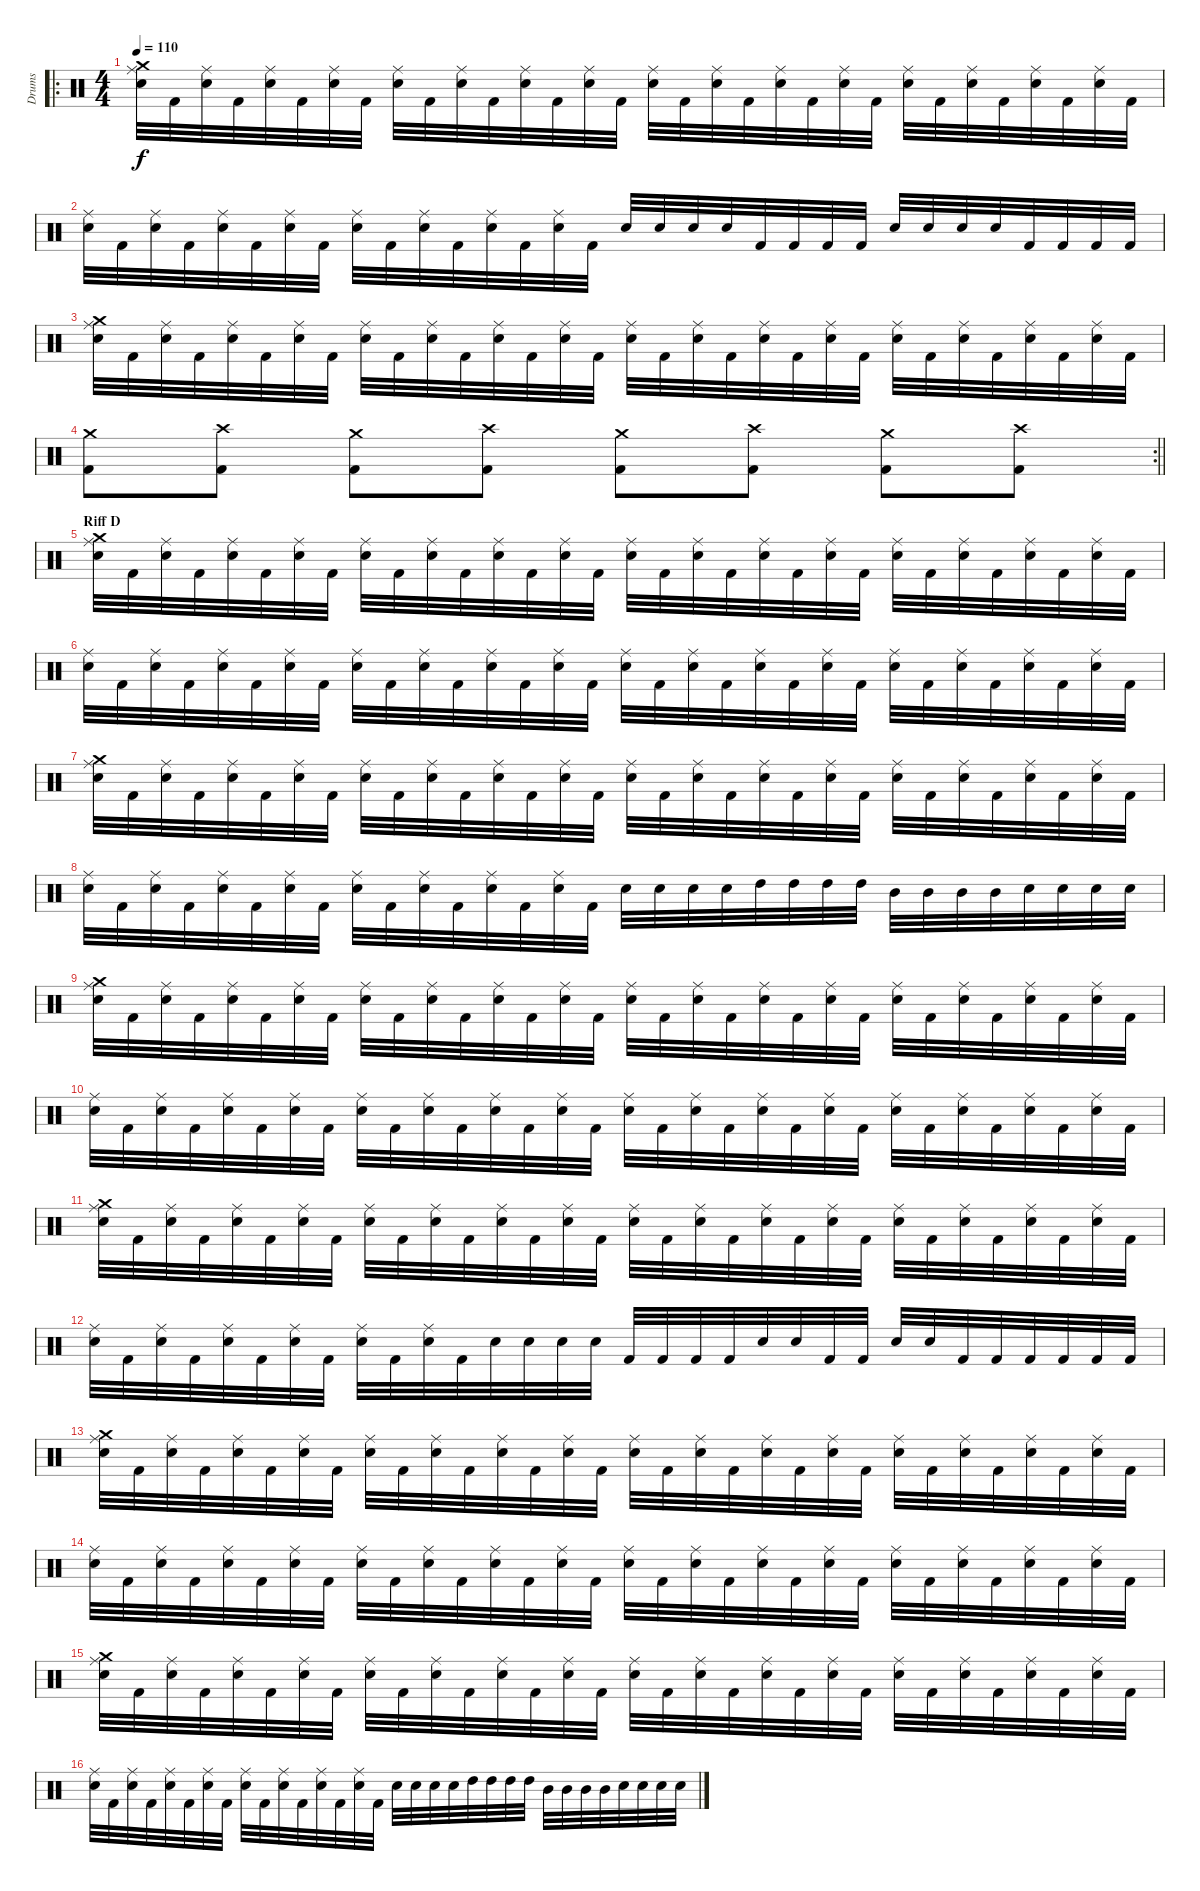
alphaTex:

\track ("Drums" "Drums") {instrument percussion}
\staff {score}
\articulation defaults
\ro
\ts (4 4)
\tempo 110
\clef neutral
\ks c
("Crash medium (hit)" "Ride (middle)" "Electric Snare (hit)").32{dy f} "Kick (hit) 2".32 ("Ride (middle)" "Electric Snare (hit)").32 "Kick (hit) 2".32 ("Ride (middle)" "Electric Snare (hit)").32 "Kick (hit) 2".32 ("Ride (middle)" "Electric Snare (hit)").32 "Kick (hit) 2".32 ("Ride (middle)" "Electric Snare (hit)").32 "Kick (hit) 2".32 ("Ride (middle)" "Electric Snare (hit)").32 "Kick (hit) 2".32 ("Ride (middle)" "Electric Snare (hit)").32 "Kick (hit) 2".32 ("Ride (middle)" "Electric Snare (hit)").32 "Kick (hit) 2".32 ("Ride (middle)" "Electric Snare (hit)").32 "Kick (hit) 2".32 ("Ride (middle)" "Electric Snare (hit)").32 "Kick (hit) 2".32 ("Ride (middle)" "Electric Snare (hit)").32 "Kick (hit) 2".32 ("Ride (middle)" "Electric Snare (hit)").32 "Kick (hit) 2".32 ("Ride (middle)" "Electric Snare (hit)").32 "Kick (hit) 2".32 ("Ride (middle)" "Electric Snare (hit)").32 "Kick (hit) 2".32 ("Ride (middle)" "Electric Snare (hit)").32 "Kick (hit) 2".32 ("Ride (middle)" "Electric Snare (hit)").32 "Kick (hit) 2".32 |
("Ride (middle)" "Electric Snare (hit)").32 "Kick (hit) 2".32 ("Ride (middle)" "Electric Snare (hit)").32 "Kick (hit) 2".32 ("Ride (middle)" "Electric Snare (hit)").32 "Kick (hit) 2".32 ("Ride (middle)" "Electric Snare (hit)").32 "Kick (hit) 2".32 ("Ride (middle)" "Electric Snare (hit)").32 "Kick (hit) 2".32 ("Ride (middle)" "Electric Snare (hit)").32 "Kick (hit) 2".32 ("Ride (middle)" "Electric Snare (hit)").32 "Kick (hit) 2".32 ("Ride (middle)" "Electric Snare (hit)").32 "Kick (hit) 2".32 "Electric Snare (hit)".32 "Electric Snare (hit)".32 "Electric Snare (hit)".32 "Electric Snare (hit)".32 "Kick (hit) 2".32 "Kick (hit) 2".32 "Kick (hit) 2".32 "Kick (hit) 2".32 "Electric Snare (hit)".32 "Electric Snare (hit)".32 "Electric Snare (hit)".32 "Electric Snare (hit)".32 "Kick (hit) 2".32 "Kick (hit) 2".32 "Kick (hit) 2".32 "Kick (hit) 2".32 |
("Crash medium (hit)" "Ride (middle)" "Electric Snare (hit)").32 "Kick (hit) 2".32 ("Ride (middle)" "Electric Snare (hit)").32 "Kick (hit) 2".32 ("Ride (middle)" "Electric Snare (hit)").32 "Kick (hit) 2".32 ("Ride (middle)" "Electric Snare (hit)").32 "Kick (hit) 2".32 ("Ride (middle)" "Electric Snare (hit)").32 "Kick (hit) 2".32 ("Ride (middle)" "Electric Snare (hit)").32 "Kick (hit) 2".32 ("Ride (middle)" "Electric Snare (hit)").32 "Kick (hit) 2".32 ("Ride (middle)" "Electric Snare (hit)").32 "Kick (hit) 2".32 ("Ride (middle)" "Electric Snare (hit)").32 "Kick (hit) 2".32 ("Ride (middle)" "Electric Snare (hit)").32 "Kick (hit) 2".32 ("Ride (middle)" "Electric Snare (hit)").32 "Kick (hit) 2".32 ("Ride (middle)" "Electric Snare (hit)").32 "Kick (hit) 2".32 ("Ride (middle)" "Electric Snare (hit)").32 "Kick (hit) 2".32 ("Ride (middle)" "Electric Snare (hit)").32 "Kick (hit) 2".32 ("Ride (middle)" "Electric Snare (hit)").32 "Kick (hit) 2".32 ("Ride (middle)" "Electric Snare (hit)").32 "Kick (hit) 2".32 |
\rc 2
\barLineRight lightlight
("Crash medium (hit)" "Kick (hit) 2").8 ("Crash high (hit)" "Kick (hit) 2").8 ("Crash medium (hit)" "Kick (hit) 2").8 ("Crash high (hit)" "Kick (hit) 2").8 ("Crash medium (hit)" "Kick (hit) 2").8 ("Crash high (hit)" "Kick (hit) 2").8 ("Crash medium (hit)" "Kick (hit) 2").8 ("Crash high (hit)" "Kick (hit) 2").8 |
\section ("" "Riff D")
("Crash medium (hit)" "Ride (middle)" "Electric Snare (hit)").32 "Kick (hit) 2".32 ("Ride (middle)" "Electric Snare (hit)").32 "Kick (hit) 2".32 ("Ride (middle)" "Electric Snare (hit)").32 "Kick (hit) 2".32 ("Ride (middle)" "Electric Snare (hit)").32 "Kick (hit) 2".32 ("Ride (middle)" "Electric Snare (hit)").32 "Kick (hit) 2".32 ("Ride (middle)" "Electric Snare (hit)").32 "Kick (hit) 2".32 ("Ride (middle)" "Electric Snare (hit)").32 "Kick (hit) 2".32 ("Ride (middle)" "Electric Snare (hit)").32 "Kick (hit) 2".32 ("Ride (middle)" "Electric Snare (hit)").32 "Kick (hit) 2".32 ("Ride (middle)" "Electric Snare (hit)").32 "Kick (hit) 2".32 ("Ride (middle)" "Electric Snare (hit)").32 "Kick (hit) 2".32 ("Ride (middle)" "Electric Snare (hit)").32 "Kick (hit) 2".32 ("Ride (middle)" "Electric Snare (hit)").32 "Kick (hit) 2".32 ("Ride (middle)" "Electric Snare (hit)").32 "Kick (hit) 2".32 ("Ride (middle)" "Electric Snare (hit)").32 "Kick (hit) 2".32 ("Ride (middle)" "Electric Snare (hit)").32 "Kick (hit) 2".32 |
("Ride (middle)" "Electric Snare (hit)").32 "Kick (hit) 2".32 ("Ride (middle)" "Electric Snare (hit)").32 "Kick (hit) 2".32 ("Ride (middle)" "Electric Snare (hit)").32 "Kick (hit) 2".32 ("Ride (middle)" "Electric Snare (hit)").32 "Kick (hit) 2".32 ("Ride (middle)" "Electric Snare (hit)").32 "Kick (hit) 2".32 ("Ride (middle)" "Electric Snare (hit)").32 "Kick (hit) 2".32 ("Ride (middle)" "Electric Snare (hit)").32 "Kick (hit) 2".32 ("Ride (middle)" "Electric Snare (hit)").32 "Kick (hit) 2".32 ("Ride (middle)" "Electric Snare (hit)").32 "Kick (hit) 2".32 ("Ride (middle)" "Electric Snare (hit)").32 "Kick (hit) 2".32 ("Ride (middle)" "Electric Snare (hit)").32 "Kick (hit) 2".32 ("Ride (middle)" "Electric Snare (hit)").32 "Kick (hit) 2".32 ("Ride (middle)" "Electric Snare (hit)").32 "Kick (hit) 2".32 ("Ride (middle)" "Electric Snare (hit)").32 "Kick (hit) 2".32 ("Ride (middle)" "Electric Snare (hit)").32 "Kick (hit) 2".32 ("Ride (middle)" "Electric Snare (hit)").32 "Kick (hit) 2".32 |
("Crash medium (hit)" "Ride (middle)" "Electric Snare (hit)").32 "Kick (hit) 2".32 ("Ride (middle)" "Electric Snare (hit)").32 "Kick (hit) 2".32 ("Ride (middle)" "Electric Snare (hit)").32 "Kick (hit) 2".32 ("Ride (middle)" "Electric Snare (hit)").32 "Kick (hit) 2".32 ("Ride (middle)" "Electric Snare (hit)").32 "Kick (hit) 2".32 ("Ride (middle)" "Electric Snare (hit)").32 "Kick (hit) 2".32 ("Ride (middle)" "Electric Snare (hit)").32 "Kick (hit) 2".32 ("Ride (middle)" "Electric Snare (hit)").32 "Kick (hit) 2".32 ("Ride (middle)" "Electric Snare (hit)").32 "Kick (hit) 2".32 ("Ride (middle)" "Electric Snare (hit)").32 "Kick (hit) 2".32 ("Ride (middle)" "Electric Snare (hit)").32 "Kick (hit) 2".32 ("Ride (middle)" "Electric Snare (hit)").32 "Kick (hit) 2".32 ("Ride (middle)" "Electric Snare (hit)").32 "Kick (hit) 2".32 ("Ride (middle)" "Electric Snare (hit)").32 "Kick (hit) 2".32 ("Ride (middle)" "Electric Snare (hit)").32 "Kick (hit) 2".32 ("Ride (middle)" "Electric Snare (hit)").32 "Kick (hit) 2".32 |
("Ride (middle)" "Electric Snare (hit)").32 "Kick (hit) 2".32 ("Ride (middle)" "Electric Snare (hit)").32 "Kick (hit) 2".32 ("Ride (middle)" "Electric Snare (hit)").32 "Kick (hit) 2".32 ("Ride (middle)" "Electric Snare (hit)").32 "Kick (hit) 2".32 ("Ride (middle)" "Electric Snare (hit)").32 "Kick (hit) 2".32 ("Ride (middle)" "Electric Snare (hit)").32 "Kick (hit) 2".32 ("Ride (middle)" "Electric Snare (hit)").32 "Kick (hit) 2".32 ("Ride (middle)" "Electric Snare (hit)").32 "Kick (hit) 2".32 "Electric Snare (hit)".32 "Electric Snare (hit)".32 "Electric Snare (hit)".32 "Electric Snare (hit)".32 "High Tom (hit)".32 "High Tom (hit)".32 "High Tom (hit)".32 "High Tom (hit)".32 "Mid Tom (hit)".32 "Mid Tom (hit)".32 "Mid Tom (hit)".32 "Mid Tom (hit)".32 "Electric Snare (hit)".32 "Electric Snare (hit)".32 "Electric Snare (hit)".32 "Electric Snare (hit)".32 |
("Crash medium (hit)" "Ride (middle)" "Electric Snare (hit)").32 "Kick (hit) 2".32 ("Ride (middle)" "Electric Snare (hit)").32 "Kick (hit) 2".32 ("Ride (middle)" "Electric Snare (hit)").32 "Kick (hit) 2".32 ("Ride (middle)" "Electric Snare (hit)").32 "Kick (hit) 2".32 ("Ride (middle)" "Electric Snare (hit)").32 "Kick (hit) 2".32 ("Ride (middle)" "Electric Snare (hit)").32 "Kick (hit) 2".32 ("Ride (middle)" "Electric Snare (hit)").32 "Kick (hit) 2".32 ("Ride (middle)" "Electric Snare (hit)").32 "Kick (hit) 2".32 ("Ride (middle)" "Electric Snare (hit)").32 "Kick (hit) 2".32 ("Ride (middle)" "Electric Snare (hit)").32 "Kick (hit) 2".32 ("Ride (middle)" "Electric Snare (hit)").32 "Kick (hit) 2".32 ("Ride (middle)" "Electric Snare (hit)").32 "Kick (hit) 2".32 ("Ride (middle)" "Electric Snare (hit)").32 "Kick (hit) 2".32 ("Ride (middle)" "Electric Snare (hit)").32 "Kick (hit) 2".32 ("Ride (middle)" "Electric Snare (hit)").32 "Kick (hit) 2".32 ("Ride (middle)" "Electric Snare (hit)").32 "Kick (hit) 2".32 |
("Ride (middle)" "Electric Snare (hit)").32 "Kick (hit) 2".32 ("Ride (middle)" "Electric Snare (hit)").32 "Kick (hit) 2".32 ("Ride (middle)" "Electric Snare (hit)").32 "Kick (hit) 2".32 ("Ride (middle)" "Electric Snare (hit)").32 "Kick (hit) 2".32 ("Ride (middle)" "Electric Snare (hit)").32 "Kick (hit) 2".32 ("Ride (middle)" "Electric Snare (hit)").32 "Kick (hit) 2".32 ("Ride (middle)" "Electric Snare (hit)").32 "Kick (hit) 2".32 ("Ride (middle)" "Electric Snare (hit)").32 "Kick (hit) 2".32 ("Ride (middle)" "Electric Snare (hit)").32 "Kick (hit) 2".32 ("Ride (middle)" "Electric Snare (hit)").32 "Kick (hit) 2".32 ("Ride (middle)" "Electric Snare (hit)").32 "Kick (hit) 2".32 ("Ride (middle)" "Electric Snare (hit)").32 "Kick (hit) 2".32 ("Ride (middle)" "Electric Snare (hit)").32 "Kick (hit) 2".32 ("Ride (middle)" "Electric Snare (hit)").32 "Kick (hit) 2".32 ("Ride (middle)" "Electric Snare (hit)").32 "Kick (hit) 2".32 ("Ride (middle)" "Electric Snare (hit)").32 "Kick (hit) 2".32 |
("Crash medium (hit)" "Ride (middle)" "Electric Snare (hit)").32 "Kick (hit) 2".32 ("Ride (middle)" "Electric Snare (hit)").32 "Kick (hit) 2".32 ("Ride (middle)" "Electric Snare (hit)").32 "Kick (hit) 2".32 ("Ride (middle)" "Electric Snare (hit)").32 "Kick (hit) 2".32 ("Ride (middle)" "Electric Snare (hit)").32 "Kick (hit) 2".32 ("Ride (middle)" "Electric Snare (hit)").32 "Kick (hit) 2".32 ("Ride (middle)" "Electric Snare (hit)").32 "Kick (hit) 2".32 ("Ride (middle)" "Electric Snare (hit)").32 "Kick (hit) 2".32 ("Ride (middle)" "Electric Snare (hit)").32 "Kick (hit) 2".32 ("Ride (middle)" "Electric Snare (hit)").32 "Kick (hit) 2".32 ("Ride (middle)" "Electric Snare (hit)").32 "Kick (hit) 2".32 ("Ride (middle)" "Electric Snare (hit)").32 "Kick (hit) 2".32 ("Ride (middle)" "Electric Snare (hit)").32 "Kick (hit) 2".32 ("Ride (middle)" "Electric Snare (hit)").32 "Kick (hit) 2".32 ("Ride (middle)" "Electric Snare (hit)").32 "Kick (hit) 2".32 ("Ride (middle)" "Electric Snare (hit)").32 "Kick (hit) 2".32 |
("Ride (middle)" "Electric Snare (hit)").32 "Kick (hit) 2".32 ("Ride (middle)" "Electric Snare (hit)").32 "Kick (hit) 2".32 ("Ride (middle)" "Electric Snare (hit)").32 "Kick (hit) 2".32 ("Ride (middle)" "Electric Snare (hit)").32 "Kick (hit) 2".32 ("Ride (middle)" "Electric Snare (hit)").32 "Kick (hit) 2".32 ("Ride (middle)" "Electric Snare (hit)").32 "Kick (hit) 2".32 "Electric Snare (hit)".32 "Electric Snare (hit)".32 "Electric Snare (hit)".32 "Electric Snare (hit)".32 "Kick (hit) 2".32 "Kick (hit) 2".32 "Kick (hit) 2".32 "Kick (hit) 2".32 "Electric Snare (hit)".32 "Electric Snare (hit)".32 "Kick (hit) 2".32 "Kick (hit) 2".32 "Electric Snare (hit)".32 "Electric Snare (hit)".32 "Kick (hit) 2".32 "Kick (hit) 2".32 "Kick (hit) 2".32 "Kick (hit) 2".32 "Kick (hit) 2".32 "Kick (hit) 2".32 |
("Crash medium (hit)" "Ride (middle)" "Electric Snare (hit)").32 "Kick (hit) 2".32 ("Ride (middle)" "Electric Snare (hit)").32 "Kick (hit) 2".32 ("Ride (middle)" "Electric Snare (hit)").32 "Kick (hit) 2".32 ("Ride (middle)" "Electric Snare (hit)").32 "Kick (hit) 2".32 ("Ride (middle)" "Electric Snare (hit)").32 "Kick (hit) 2".32 ("Ride (middle)" "Electric Snare (hit)").32 "Kick (hit) 2".32 ("Ride (middle)" "Electric Snare (hit)").32 "Kick (hit) 2".32 ("Ride (middle)" "Electric Snare (hit)").32 "Kick (hit) 2".32 ("Ride (middle)" "Electric Snare (hit)").32 "Kick (hit) 2".32 ("Ride (middle)" "Electric Snare (hit)").32 "Kick (hit) 2".32 ("Ride (middle)" "Electric Snare (hit)").32 "Kick (hit) 2".32 ("Ride (middle)" "Electric Snare (hit)").32 "Kick (hit) 2".32 ("Ride (middle)" "Electric Snare (hit)").32 "Kick (hit) 2".32 ("Ride (middle)" "Electric Snare (hit)").32 "Kick (hit) 2".32 ("Ride (middle)" "Electric Snare (hit)").32 "Kick (hit) 2".32 ("Ride (middle)" "Electric Snare (hit)").32 "Kick (hit) 2".32 |
("Ride (middle)" "Electric Snare (hit)").32 "Kick (hit) 2".32 ("Ride (middle)" "Electric Snare (hit)").32 "Kick (hit) 2".32 ("Ride (middle)" "Electric Snare (hit)").32 "Kick (hit) 2".32 ("Ride (middle)" "Electric Snare (hit)").32 "Kick (hit) 2".32 ("Ride (middle)" "Electric Snare (hit)").32 "Kick (hit) 2".32 ("Ride (middle)" "Electric Snare (hit)").32 "Kick (hit) 2".32 ("Ride (middle)" "Electric Snare (hit)").32 "Kick (hit) 2".32 ("Ride (middle)" "Electric Snare (hit)").32 "Kick (hit) 2".32 ("Ride (middle)" "Electric Snare (hit)").32 "Kick (hit) 2".32 ("Ride (middle)" "Electric Snare (hit)").32 "Kick (hit) 2".32 ("Ride (middle)" "Electric Snare (hit)").32 "Kick (hit) 2".32 ("Ride (middle)" "Electric Snare (hit)").32 "Kick (hit) 2".32 ("Ride (middle)" "Electric Snare (hit)").32 "Kick (hit) 2".32 ("Ride (middle)" "Electric Snare (hit)").32 "Kick (hit) 2".32 ("Ride (middle)" "Electric Snare (hit)").32 "Kick (hit) 2".32 ("Ride (middle)" "Electric Snare (hit)").32 "Kick (hit) 2".32 |
("Crash medium (hit)" "Ride (middle)" "Electric Snare (hit)").32 "Kick (hit) 2".32 ("Ride (middle)" "Electric Snare (hit)").32 "Kick (hit) 2".32 ("Ride (middle)" "Electric Snare (hit)").32 "Kick (hit) 2".32 ("Ride (middle)" "Electric Snare (hit)").32 "Kick (hit) 2".32 ("Ride (middle)" "Electric Snare (hit)").32 "Kick (hit) 2".32 ("Ride (middle)" "Electric Snare (hit)").32 "Kick (hit) 2".32 ("Ride (middle)" "Electric Snare (hit)").32 "Kick (hit) 2".32 ("Ride (middle)" "Electric Snare (hit)").32 "Kick (hit) 2".32 ("Ride (middle)" "Electric Snare (hit)").32 "Kick (hit) 2".32 ("Ride (middle)" "Electric Snare (hit)").32 "Kick (hit) 2".32 ("Ride (middle)" "Electric Snare (hit)").32 "Kick (hit) 2".32 ("Ride (middle)" "Electric Snare (hit)").32 "Kick (hit) 2".32 ("Ride (middle)" "Electric Snare (hit)").32 "Kick (hit) 2".32 ("Ride (middle)" "Electric Snare (hit)").32 "Kick (hit) 2".32 ("Ride (middle)" "Electric Snare (hit)").32 "Kick (hit) 2".32 ("Ride (middle)" "Electric Snare (hit)").32 "Kick (hit) 2".32 |
("Ride (middle)" "Electric Snare (hit)").32 "Kick (hit) 2".32 ("Ride (middle)" "Electric Snare (hit)").32 "Kick (hit) 2".32 ("Ride (middle)" "Electric Snare (hit)").32 "Kick (hit) 2".32 ("Ride (middle)" "Electric Snare (hit)").32 "Kick (hit) 2".32 ("Ride (middle)" "Electric Snare (hit)").32 "Kick (hit) 2".32 ("Ride (middle)" "Electric Snare (hit)").32 "Kick (hit) 2".32 ("Ride (middle)" "Electric Snare (hit)").32 "Kick (hit) 2".32 ("Ride (middle)" "Electric Snare (hit)").32 "Kick (hit) 2".32 "Electric Snare (hit)".32 "Electric Snare (hit)".32 "Electric Snare (hit)".32 "Electric Snare (hit)".32 "High Tom (hit)".32 "High Tom (hit)".32 "High Tom (hit)".32 "High Tom (hit)".32 "Mid Tom (hit)".32 "Mid Tom (hit)".32 "Mid Tom (hit)".32 "Mid Tom (hit)".32 "Electric Snare (hit)".32 "Electric Snare (hit)".32 "Electric Snare (hit)".32 "Electric Snare (hit)".32
